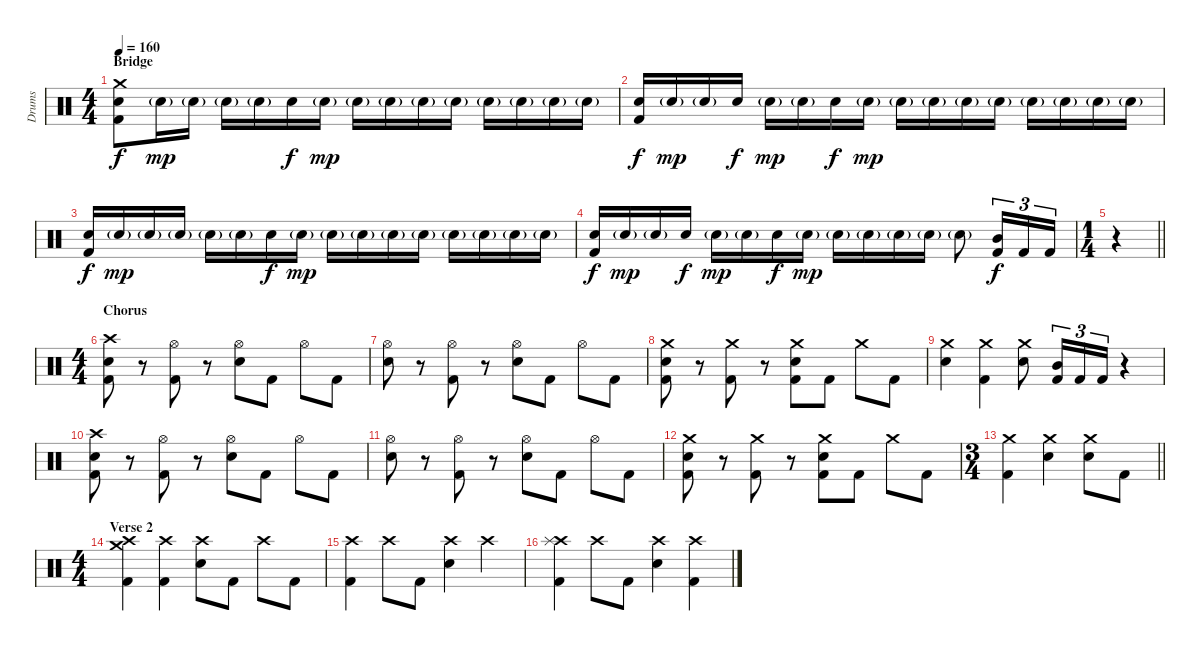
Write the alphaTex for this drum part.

\track ("Drums" "Drums") {instrument percussion}
\staff {score}
\articulation defaults
\ts (4 4)
\section ("" "Bridge")
\tempo 160
\clef neutral
\ks c
("Crash medium (hit)" "Electric Snare (hit)" "Kick (hit) 2").8{dy f} "Electric Snare (hit)"{g}.16{dy mp} "Electric Snare (hit)"{g}.16 "Electric Snare (hit)"{g}.16 "Electric Snare (hit)"{g}.16 "Electric Snare (hit)".16{dy f} "Electric Snare (hit)"{g}.16{dy mp} "Electric Snare (hit)"{g}.16 "Electric Snare (hit)"{g}.16 "Electric Snare (hit)"{g}.16 "Electric Snare (hit)"{g}.16 "Electric Snare (hit)"{g}.16 "Electric Snare (hit)"{g}.16 "Electric Snare (hit)"{g}.16 "Electric Snare (hit)"{g}.16 |
("Electric Snare (hit)" "Kick (hit) 2").16{dy f} "Electric Snare (hit)"{g}.16{dy mp} "Electric Snare (hit)"{g}.16 "Electric Snare (hit)".16{dy f} "Electric Snare (hit)"{g}.16{dy mp} "Electric Snare (hit)"{g}.16 "Electric Snare (hit)".16{dy f} "Electric Snare (hit)"{g}.16{dy mp} "Electric Snare (hit)"{g}.16 "Electric Snare (hit)"{g}.16 "Electric Snare (hit)"{g}.16 "Electric Snare (hit)"{g}.16 "Electric Snare (hit)"{g}.16 "Electric Snare (hit)"{g}.16 "Electric Snare (hit)"{g}.16 "Electric Snare (hit)"{g}.16 |
("Electric Snare (hit)" "Kick (hit) 2").16{dy f} "Electric Snare (hit)"{g}.16{dy mp} "Electric Snare (hit)"{g}.16 "Electric Snare (hit)"{g}.16 "Electric Snare (hit)"{g}.16 "Electric Snare (hit)"{g}.16 "Electric Snare (hit)".16{dy f} "Electric Snare (hit)"{g}.16{dy mp} "Electric Snare (hit)"{g}.16 "Electric Snare (hit)"{g}.16 "Electric Snare (hit)"{g}.16 "Electric Snare (hit)"{g}.16 "Electric Snare (hit)"{g}.16 "Electric Snare (hit)"{g}.16 "Electric Snare (hit)"{g}.16 "Electric Snare (hit)"{g}.16 |
("Electric Snare (hit)" "Kick (hit) 2").16{dy f} "Electric Snare (hit)"{g}.16{dy mp} "Electric Snare (hit)"{g}.16 "Electric Snare (hit)".16{dy f} "Electric Snare (hit)"{g}.16{dy mp} "Electric Snare (hit)"{g}.16 "Electric Snare (hit)".16{dy f} "Electric Snare (hit)"{g}.16{dy mp} "Electric Snare (hit)"{g}.16 "Electric Snare (hit)"{g}.16 "Electric Snare (hit)"{g}.16 "Electric Snare (hit)"{g}.16 "Electric Snare (hit)"{g}.8 ("Mid Tom (hit)" "Kick (hit) 2").16{tu (3 2) dy f} "Kick (hit) 2".16{tu (3 2)} "Kick (hit) 2".16{tu (3 2)} |
\ts (1 4)
\barLineRight lightlight
r.4 |
\ts (4 4)
\section ("" "Chorus")
("Crash high (hit)" "Electric Snare (hit)" "Kick (hit) 2").8 r.8 ("Hi-Hat (open)" "Kick (hit) 2").8 r.8 ("Hi-Hat (open)" "Electric Snare (hit)").8 "Kick (hit) 2".8 "Hi-Hat (open)".8 "Kick (hit) 2".8 |
("Hi-Hat (open)" "Electric Snare (hit)").8 r.8 ("Hi-Hat (open)" "Kick (hit) 2").8 r.8 ("Hi-Hat (open)" "Electric Snare (hit)").8 "Kick (hit) 2".8 "Hi-Hat (open)".8 "Kick (hit) 2".8 |
("Crash medium (hit)" "Electric Snare (hit)" "Kick (hit) 2").8 r.8 ("Crash medium (hit)" "Kick (hit) 2").8 r.8 ("Crash medium (hit)" "Electric Snare (hit)" "Kick (hit) 2").8 "Kick (hit) 2".8 "Crash medium (hit)".8 "Kick (hit) 2".8 |
("Crash medium (hit)" "Electric Snare (hit)").4 ("Crash medium (hit)" "Kick (hit) 2").4 ("Crash medium (hit)" "Electric Snare (hit)").8 ("Mid Tom (hit)" "Kick (hit) 2").16{tu (3 2)} "Kick (hit) 2".16{tu (3 2)} "Kick (hit) 2".16{tu (3 2)} r.4 |
("Crash high (hit)" "Electric Snare (hit)" "Kick (hit) 2").8 r.8 ("Hi-Hat (open)" "Kick (hit) 2").8 r.8 ("Hi-Hat (open)" "Electric Snare (hit)").8 "Kick (hit) 2".8 "Hi-Hat (open)".8 "Kick (hit) 2".8 |
("Hi-Hat (open)" "Electric Snare (hit)").8 r.8 ("Hi-Hat (open)" "Kick (hit) 2").8 r.8 ("Hi-Hat (open)" "Electric Snare (hit)").8 "Kick (hit) 2".8 "Hi-Hat (open)".8 "Kick (hit) 2".8 |
("Crash medium (hit)" "Electric Snare (hit)" "Kick (hit) 2").8 r.8 ("Crash medium (hit)" "Kick (hit) 2").8 r.8 ("Crash medium (hit)" "Electric Snare (hit)" "Kick (hit) 2").8 "Kick (hit) 2".8 "Crash medium (hit)".8 "Kick (hit) 2".8 |
\ts (3 4)
\barLineRight lightlight
("Crash medium (hit)" "Kick (hit) 2").4 ("Crash medium (hit)" "Electric Snare (hit)").4 ("Crash medium (hit)" "Electric Snare (hit)").8 "Kick (hit) 2".8 |
\ts (4 4)
\section ("" "Verse 2")
("Crash high (hit)" "Crash medium (hit)" "Kick (hit) 2").4 ("Crash high (hit)" "Kick (hit) 2").4 ("Crash high (hit)" "Electric Snare (hit)").8 "Kick (hit) 2".8 "Crash high (hit)".8 "Kick (hit) 2".8 |
("Crash high (hit)" "Kick (hit) 2").4 "Crash high (hit)".8 "Kick (hit) 2".8 ("Crash high (hit)" "Electric Snare (hit)").4 "Crash high (hit)".4 |
("Crash high (hit)" "Splash (hit)" "Kick (hit) 2").4 "Crash high (hit)".8 "Kick (hit) 2".8 ("Crash high (hit)" "Electric Snare (hit)").4 ("Crash high (hit)" "Kick (hit) 2").4
